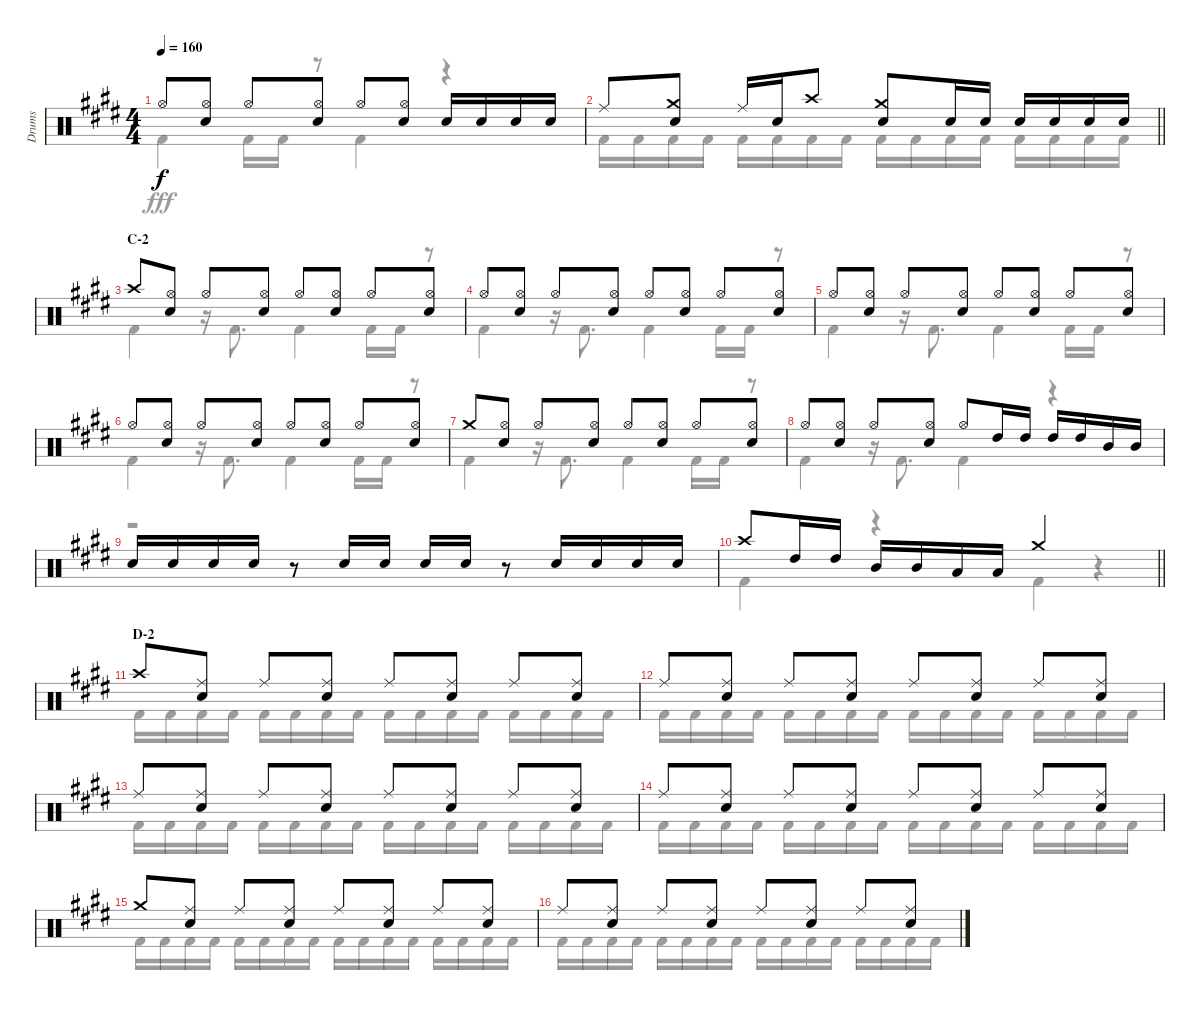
\track ("Drums" "Drums") {instrument percussion}
\staff {score}
\articulation defaults
\voice
\ts (4 4)
\tempo 160
\clef neutral
\ks e "Hi-Hat (open)".8{dy f}
("Hi-Hat (open)" "Snare (hit) 2").8 "Hi-Hat (open)".8 ("Hi-Hat (open)" "Snare (hit) 2").8 "Hi-Hat (open)".8 ("Hi-Hat (open)" "Snare (hit) 2").8 "Snare (hit) 2".16 "Snare (hit) 2".16 "Snare (hit) 2".16 "Snare (hit) 2".16 |
\barLineRight lightlight "Ride (middle)".8
("Crash medium (hit)" "Snare (hit) 2").8 "Ride (middle)".16 "Snare (hit) 2".16 "Crash high (hit)".8 ("Crash medium (hit)" "Snare (hit) 2").8 "Snare (hit) 2".16 "Snare (hit) 2".16 "Snare (hit) 2".16 "Snare (hit) 2".16 "Snare (hit) 2".16 "Snare (hit) 2".16 |
\section ("" "C-2")
"Crash high (hit)".8 ("Hi-Hat (open)" "Snare (hit) 2").8 "Hi-Hat (open)".8 ("Hi-Hat (open)" "Snare (hit) 2").8 "Hi-Hat (open)".8 ("Hi-Hat (open)" "Snare (hit) 2").8 "Hi-Hat (open)".8 ("Hi-Hat (open)" "Snare (hit) 2").8 |
"Hi-Hat (open)".8 ("Hi-Hat (open)" "Snare (hit) 2").8 "Hi-Hat (open)".8 ("Hi-Hat (open)" "Snare (hit) 2").8 "Hi-Hat (open)".8 ("Hi-Hat (open)" "Snare (hit) 2").8 "Hi-Hat (open)".8 ("Hi-Hat (open)" "Snare (hit) 2").8 |
"Hi-Hat (open)".8 ("Hi-Hat (open)" "Snare (hit) 2").8 "Hi-Hat (open)".8 ("Hi-Hat (open)" "Snare (hit) 2").8 "Hi-Hat (open)".8 ("Hi-Hat (open)" "Snare (hit) 2").8 "Hi-Hat (open)".8 ("Hi-Hat (open)" "Snare (hit) 2").8 |
"Hi-Hat (open)".8 ("Hi-Hat (open)" "Snare (hit) 2").8 "Hi-Hat (open)".8 ("Hi-Hat (open)" "Snare (hit) 2").8 "Hi-Hat (open)".8 ("Hi-Hat (open)" "Snare (hit) 2").8 "Hi-Hat (open)".8 ("Hi-Hat (open)" "Snare (hit) 2").8 |
"Crash medium (hit)".8 ("Hi-Hat (open)" "Snare (hit) 2").8 "Hi-Hat (open)".8 ("Hi-Hat (open)" "Snare (hit) 2").8 "Hi-Hat (open)".8 ("Hi-Hat (open)" "Snare (hit) 2").8 "Hi-Hat (open)".8 ("Hi-Hat (open)" "Snare (hit) 2").8 |
"Hi-Hat (open)".8 ("Hi-Hat (open)" "Snare (hit) 2").8 "Hi-Hat (open)".8 ("Hi-Hat (open)" "Snare (hit) 2").8 "Hi-Hat (open)".8 "High Tom (hit)".16 "High Tom (hit)".16 "High Tom (hit)".16 "High Tom (hit)".16 "Mid Tom (hit)".16 "Mid Tom (hit)".16 |
"Snare (hit) 2".16 "Snare (hit) 2".16 "Snare (hit) 2".16 "Snare (hit) 2".16 r.8 "Snare (hit) 2".16 "Snare (hit) 2".16 "Snare (hit) 2".16 "Snare (hit) 2".16 r.8 "Snare (hit) 2".16 "Snare (hit) 2".16 "Snare (hit) 2".16 "Snare (hit) 2".16 |
\barLineRight lightlight "Crash high (hit)".8 "High Tom (hit)".16 "High Tom (hit)".16 "Mid Tom (hit)".16 "Mid Tom (hit)".16 "Low Tom (hit)".16 "Low Tom (hit)".16 "Crash medium (hit)".2
|
\section ("" "D-2")
"Crash high (hit)".8 ("Ride (middle)" "Snare (hit) 2").8 "Ride (middle)".8 ("Ride (middle)" "Snare (hit) 2").8 "Ride (middle)".8 ("Ride (middle)" "Snare (hit) 2").8 "Ride (middle)".8 ("Ride (middle)" "Snare (hit) 2").8 |
"Ride (middle)".8 ("Ride (middle)" "Snare (hit) 2").8 "Ride (middle)".8 ("Ride (middle)" "Snare (hit) 2").8 "Ride (middle)".8 ("Ride (middle)" "Snare (hit) 2").8 "Ride (middle)".8 ("Ride (middle)" "Snare (hit) 2").8 |
"Ride (middle)".8 ("Ride (middle)" "Snare (hit) 2").8 "Ride (middle)".8 ("Ride (middle)" "Snare (hit) 2").8 "Ride (middle)".8 ("Ride (middle)" "Snare (hit) 2").8 "Ride (middle)".8 ("Ride (middle)" "Snare (hit) 2").8 |
"Ride (middle)".8 ("Ride (middle)" "Snare (hit) 2").8 "Ride (middle)".8 ("Ride (middle)" "Snare (hit) 2").8 "Ride (middle)".8 ("Ride (middle)" "Snare (hit) 2").8 "Ride (middle)".8 ("Ride (middle)" "Snare (hit) 2").8 |
"Crash medium (hit)".8 ("Ride (middle)" "Snare (hit) 2").8 "Ride (middle)".8 ("Ride (middle)" "Snare (hit) 2").8 "Ride (middle)".8 ("Ride (middle)" "Snare (hit) 2").8 "Ride (middle)".8 ("Ride (middle)" "Snare (hit) 2").8 |
"Ride (middle)".8 ("Ride (middle)" "Snare (hit) 2").8 "Ride (middle)".8 ("Ride (middle)" "Snare (hit) 2").8 "Ride (middle)".8 ("Ride (middle)" "Snare (hit) 2").8 "Ride (middle)".8 ("Ride (middle)" "Snare (hit) 2").8
\voice
\clef neutral
\ottava regular
\simile none
\ks e "Kick (hit) 2".4{dy fff} "Kick (hit) 2".16 "Kick (hit) 2".16
r.8 "Kick (hit) 2".4 r.4 |
\barLineRight lightlight "Kick (hit) 2".16 "Kick (hit) 2".16 "Kick (hit) 2".16 "Kick (hit) 2".16 "Kick (hit) 2".16 "Kick (hit) 2".16 "Kick (hit) 2".16 "Kick (hit) 2".16 "Kick (hit) 2".16 "Kick (hit) 2".16 "Kick (hit) 2".16 "Kick (hit) 2".16 "Kick (hit) 2".16 "Kick (hit) 2".16 "Kick (hit) 2".16 "Kick (hit) 2".16
|
"Kick (hit) 2".4 r.16 "Kick (hit) 2".8{d} "Kick (hit) 2".4 "Kick (hit) 2".16 "Kick (hit) 2".16 r.8 |
"Kick (hit) 2".4 r.16 "Kick (hit) 2".8{d} "Kick (hit) 2".4 "Kick (hit) 2".16 "Kick (hit) 2".16 r.8 |
"Kick (hit) 2".4 r.16 "Kick (hit) 2".8{d} "Kick (hit) 2".4 "Kick (hit) 2".16 "Kick (hit) 2".16 r.8 |
"Kick (hit) 2".4 r.16 "Kick (hit) 2".8{d} "Kick (hit) 2".4 "Kick (hit) 2".16 "Kick (hit) 2".16 r.8 |
"Kick (hit) 2".4 r.16 "Kick (hit) 2".8{d} "Kick (hit) 2".4 "Kick (hit) 2".16 "Kick (hit) 2".16 r.8 |
"Kick (hit) 2".4 r.16 "Kick (hit) 2".8{d} "Kick (hit) 2".4 r.4 |
r.1 |
\barLineRight lightlight "Kick (hit) 2".4
r.4 "Kick (hit) 2".4 r.4 |
"Kick (hit) 2".16 "Kick (hit) 2".16 "Kick (hit) 2".16 "Kick (hit) 2".16 "Kick (hit) 2".16 "Kick (hit) 2".16 "Kick (hit) 2".16 "Kick (hit) 2".16 "Kick (hit) 2".16 "Kick (hit) 2".16 "Kick (hit) 2".16 "Kick (hit) 2".16 "Kick (hit) 2".16 "Kick (hit) 2".16 "Kick (hit) 2".16 "Kick (hit) 2".16 |
"Kick (hit) 2".16 "Kick (hit) 2".16 "Kick (hit) 2".16 "Kick (hit) 2".16 "Kick (hit) 2".16 "Kick (hit) 2".16 "Kick (hit) 2".16 "Kick (hit) 2".16 "Kick (hit) 2".16 "Kick (hit) 2".16 "Kick (hit) 2".16 "Kick (hit) 2".16 "Kick (hit) 2".16 "Kick (hit) 2".16 "Kick (hit) 2".16 "Kick (hit) 2".16 |
"Kick (hit) 2".16 "Kick (hit) 2".16 "Kick (hit) 2".16 "Kick (hit) 2".16 "Kick (hit) 2".16 "Kick (hit) 2".16 "Kick (hit) 2".16 "Kick (hit) 2".16 "Kick (hit) 2".16 "Kick (hit) 2".16 "Kick (hit) 2".16 "Kick (hit) 2".16 "Kick (hit) 2".16 "Kick (hit) 2".16 "Kick (hit) 2".16 "Kick (hit) 2".16 |
"Kick (hit) 2".16 "Kick (hit) 2".16 "Kick (hit) 2".16 "Kick (hit) 2".16 "Kick (hit) 2".16 "Kick (hit) 2".16 "Kick (hit) 2".16 "Kick (hit) 2".16 "Kick (hit) 2".16 "Kick (hit) 2".16 "Kick (hit) 2".16 "Kick (hit) 2".16 "Kick (hit) 2".16 "Kick (hit) 2".16 "Kick (hit) 2".16 "Kick (hit) 2".16 |
"Kick (hit) 2".16 "Kick (hit) 2".16 "Kick (hit) 2".16 "Kick (hit) 2".16 "Kick (hit) 2".16 "Kick (hit) 2".16 "Kick (hit) 2".16 "Kick (hit) 2".16 "Kick (hit) 2".16 "Kick (hit) 2".16 "Kick (hit) 2".16 "Kick (hit) 2".16 "Kick (hit) 2".16 "Kick (hit) 2".16 "Kick (hit) 2".16 "Kick (hit) 2".16 |
"Kick (hit) 2".16 "Kick (hit) 2".16 "Kick (hit) 2".16 "Kick (hit) 2".16 "Kick (hit) 2".16 "Kick (hit) 2".16 "Kick (hit) 2".16 "Kick (hit) 2".16 "Kick (hit) 2".16 "Kick (hit) 2".16 "Kick (hit) 2".16 "Kick (hit) 2".16 "Kick (hit) 2".16 "Kick (hit) 2".16 "Kick (hit) 2".16 "Kick (hit) 2".16
